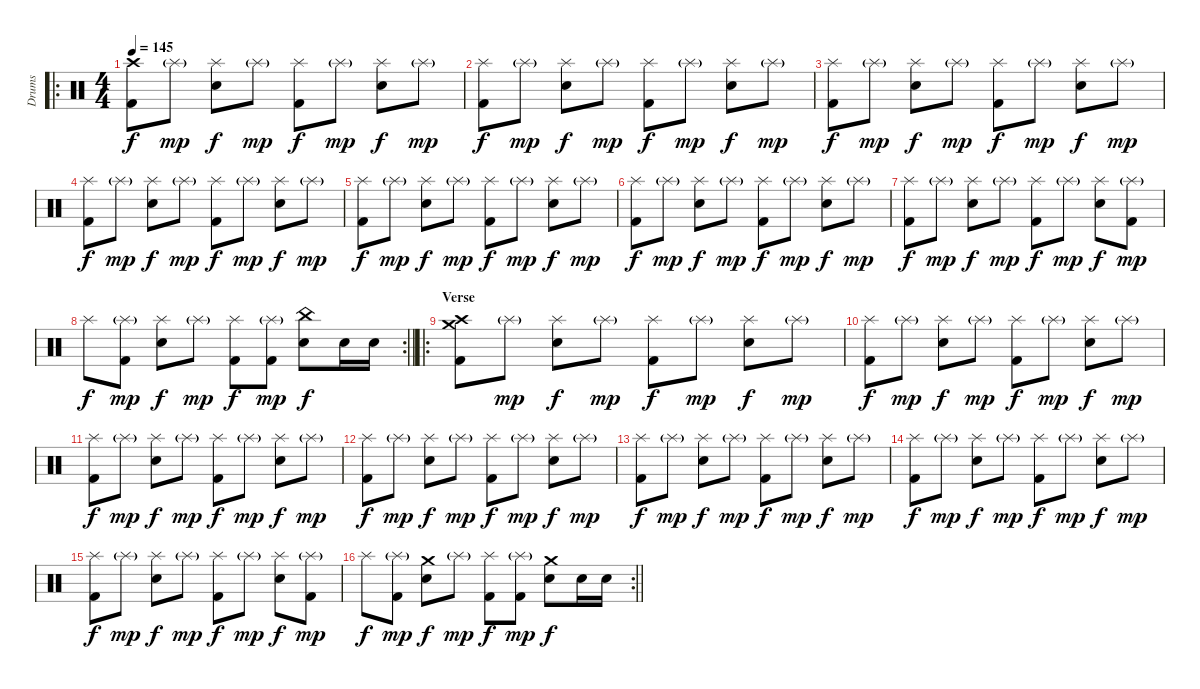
\track ("Drums" "Drums") {instrument percussion}
\staff {score}
\articulation defaults
\ro
\ts (4 4)
\tempo 145
\clef neutral
\ks c
("Crash high (hit)" "Kick (hit) 2").8{dy f} "Splash (hit)"{g}.8{dy mp} ("Splash (hit)" "Snare (hit) 2").8{dy f} "Splash (hit)"{g}.8{dy mp} ("Splash (hit)" "Kick (hit) 2").8{dy f} "Splash (hit)"{g}.8{dy mp} ("Splash (hit)" "Snare (hit) 2").8{dy f} "Splash (hit)"{g}.8{dy mp} |
("Splash (hit)" "Kick (hit) 2").8{dy f} "Splash (hit)"{g}.8{dy mp} ("Splash (hit)" "Snare (hit) 2").8{dy f} "Splash (hit)"{g}.8{dy mp} ("Splash (hit)" "Kick (hit) 2").8{dy f} "Splash (hit)"{g}.8{dy mp} ("Splash (hit)" "Snare (hit) 2").8{dy f} "Splash (hit)"{g}.8{dy mp} |
("Splash (hit)" "Kick (hit) 2").8{dy f} "Splash (hit)"{g}.8{dy mp} ("Splash (hit)" "Snare (hit) 2").8{dy f} "Splash (hit)"{g}.8{dy mp} ("Splash (hit)" "Kick (hit) 2").8{dy f} "Splash (hit)"{g}.8{dy mp} ("Splash (hit)" "Snare (hit) 2").8{dy f} "Splash (hit)"{g}.8{dy mp} |
("Splash (hit)" "Kick (hit) 2").8{dy f} "Splash (hit)"{g}.8{dy mp} ("Splash (hit)" "Snare (hit) 2").8{dy f} "Splash (hit)"{g}.8{dy mp} ("Splash (hit)" "Kick (hit) 2").8{dy f} "Splash (hit)"{g}.8{dy mp} ("Splash (hit)" "Snare (hit) 2").8{dy f} "Splash (hit)"{g}.8{dy mp} |
("Splash (hit)" "Kick (hit) 2").8{dy f} "Splash (hit)"{g}.8{dy mp} ("Splash (hit)" "Snare (hit) 2").8{dy f} "Splash (hit)"{g}.8{dy mp} ("Splash (hit)" "Kick (hit) 2").8{dy f} "Splash (hit)"{g}.8{dy mp} ("Splash (hit)" "Snare (hit) 2").8{dy f} "Splash (hit)"{g}.8{dy mp} |
("Splash (hit)" "Kick (hit) 2").8{dy f} "Splash (hit)"{g}.8{dy mp} ("Splash (hit)" "Snare (hit) 2").8{dy f} "Splash (hit)"{g}.8{dy mp} ("Splash (hit)" "Kick (hit) 2").8{dy f} "Splash (hit)"{g}.8{dy mp} ("Splash (hit)" "Snare (hit) 2").8{dy f} "Splash (hit)"{g}.8{dy mp} |
("Splash (hit)" "Kick (hit) 2").8{dy f} "Splash (hit)"{g}.8{dy mp} ("Splash (hit)" "Snare (hit) 2").8{dy f} "Splash (hit)"{g}.8{dy mp} ("Splash (hit)" "Kick (hit) 2").8{dy f} "Splash (hit)"{g}.8{dy mp} ("Splash (hit)" "Snare (hit) 2").8{dy f} ("Splash (hit)"{g} "Kick (hit) 2").8{dy mp} |
\rc 2
\barLineRight lightlight "Splash (hit)".8{dy f}
("Splash (hit)"{g} "Kick (hit) 2").8{dy mp} ("Splash (hit)" "Snare (hit) 2").8{dy f} "Splash (hit)"{g}.8{dy mp} ("Splash (hit)" "Kick (hit) 2").8{dy f} ("Splash (hit)"{g} "Kick (hit) 2").8{dy mp} ("China (hit)" "Snare (hit) 2").8{dy f} "Snare (hit) 2".16 "Snare (hit) 2".16 |
\ro
\section ("" "Verse")
("Crash high (hit)" "Crash medium (hit)" "Kick (hit) 2").8 "Splash (hit)"{g}.8{dy mp} ("Splash (hit)" "Snare (hit) 2").8{dy f} "Splash (hit)"{g}.8{dy mp} ("Splash (hit)" "Kick (hit) 2").8{dy f} "Splash (hit)"{g}.8{dy mp} ("Splash (hit)" "Snare (hit) 2").8{dy f} "Splash (hit)"{g}.8{dy mp} |
("Splash (hit)" "Kick (hit) 2").8{dy f} "Splash (hit)"{g}.8{dy mp} ("Splash (hit)" "Snare (hit) 2").8{dy f} "Splash (hit)"{g}.8{dy mp} ("Splash (hit)" "Kick (hit) 2").8{dy f} "Splash (hit)"{g}.8{dy mp} ("Splash (hit)" "Snare (hit) 2").8{dy f} "Splash (hit)"{g}.8{dy mp} |
("Splash (hit)" "Kick (hit) 2").8{dy f} "Splash (hit)"{g}.8{dy mp} ("Splash (hit)" "Snare (hit) 2").8{dy f} "Splash (hit)"{g}.8{dy mp} ("Splash (hit)" "Kick (hit) 2").8{dy f} "Splash (hit)"{g}.8{dy mp} ("Splash (hit)" "Snare (hit) 2").8{dy f} "Splash (hit)"{g}.8{dy mp} |
("Splash (hit)" "Kick (hit) 2").8{dy f} "Splash (hit)"{g}.8{dy mp} ("Splash (hit)" "Snare (hit) 2").8{dy f} "Splash (hit)"{g}.8{dy mp} ("Splash (hit)" "Kick (hit) 2").8{dy f} "Splash (hit)"{g}.8{dy mp} ("Splash (hit)" "Snare (hit) 2").8{dy f} "Splash (hit)"{g}.8{dy mp} |
("Splash (hit)" "Kick (hit) 2").8{dy f} "Splash (hit)"{g}.8{dy mp} ("Splash (hit)" "Snare (hit) 2").8{dy f} "Splash (hit)"{g}.8{dy mp} ("Splash (hit)" "Kick (hit) 2").8{dy f} "Splash (hit)"{g}.8{dy mp} ("Splash (hit)" "Snare (hit) 2").8{dy f} "Splash (hit)"{g}.8{dy mp} |
("Splash (hit)" "Kick (hit) 2").8{dy f} "Splash (hit)"{g}.8{dy mp} ("Splash (hit)" "Snare (hit) 2").8{dy f} "Splash (hit)"{g}.8{dy mp} ("Splash (hit)" "Kick (hit) 2").8{dy f} "Splash (hit)"{g}.8{dy mp} ("Splash (hit)" "Snare (hit) 2").8{dy f} "Splash (hit)"{g}.8{dy mp} |
("Splash (hit)" "Kick (hit) 2").8{dy f} "Splash (hit)"{g}.8{dy mp} ("Splash (hit)" "Snare (hit) 2").8{dy f} "Splash (hit)"{g}.8{dy mp} ("Splash (hit)" "Kick (hit) 2").8{dy f} "Splash (hit)"{g}.8{dy mp} ("Splash (hit)" "Snare (hit) 2").8{dy f} ("Splash (hit)"{g} "Kick (hit) 2").8{dy mp} |
\rc 2
\barLineRight lightlight "Splash (hit)".8{dy f}
("Splash (hit)"{g} "Kick (hit) 2").8{dy mp} ("Crash medium (hit)" "Snare (hit) 2").8{dy f} "Splash (hit)"{g}.8{dy mp} ("Splash (hit)" "Kick (hit) 2").8{dy f} ("Splash (hit)"{g} "Kick (hit) 2").8{dy mp} ("Crash medium (hit)" "Snare (hit) 2").8{dy f} "Snare (hit) 2".16 "Snare (hit) 2".16
